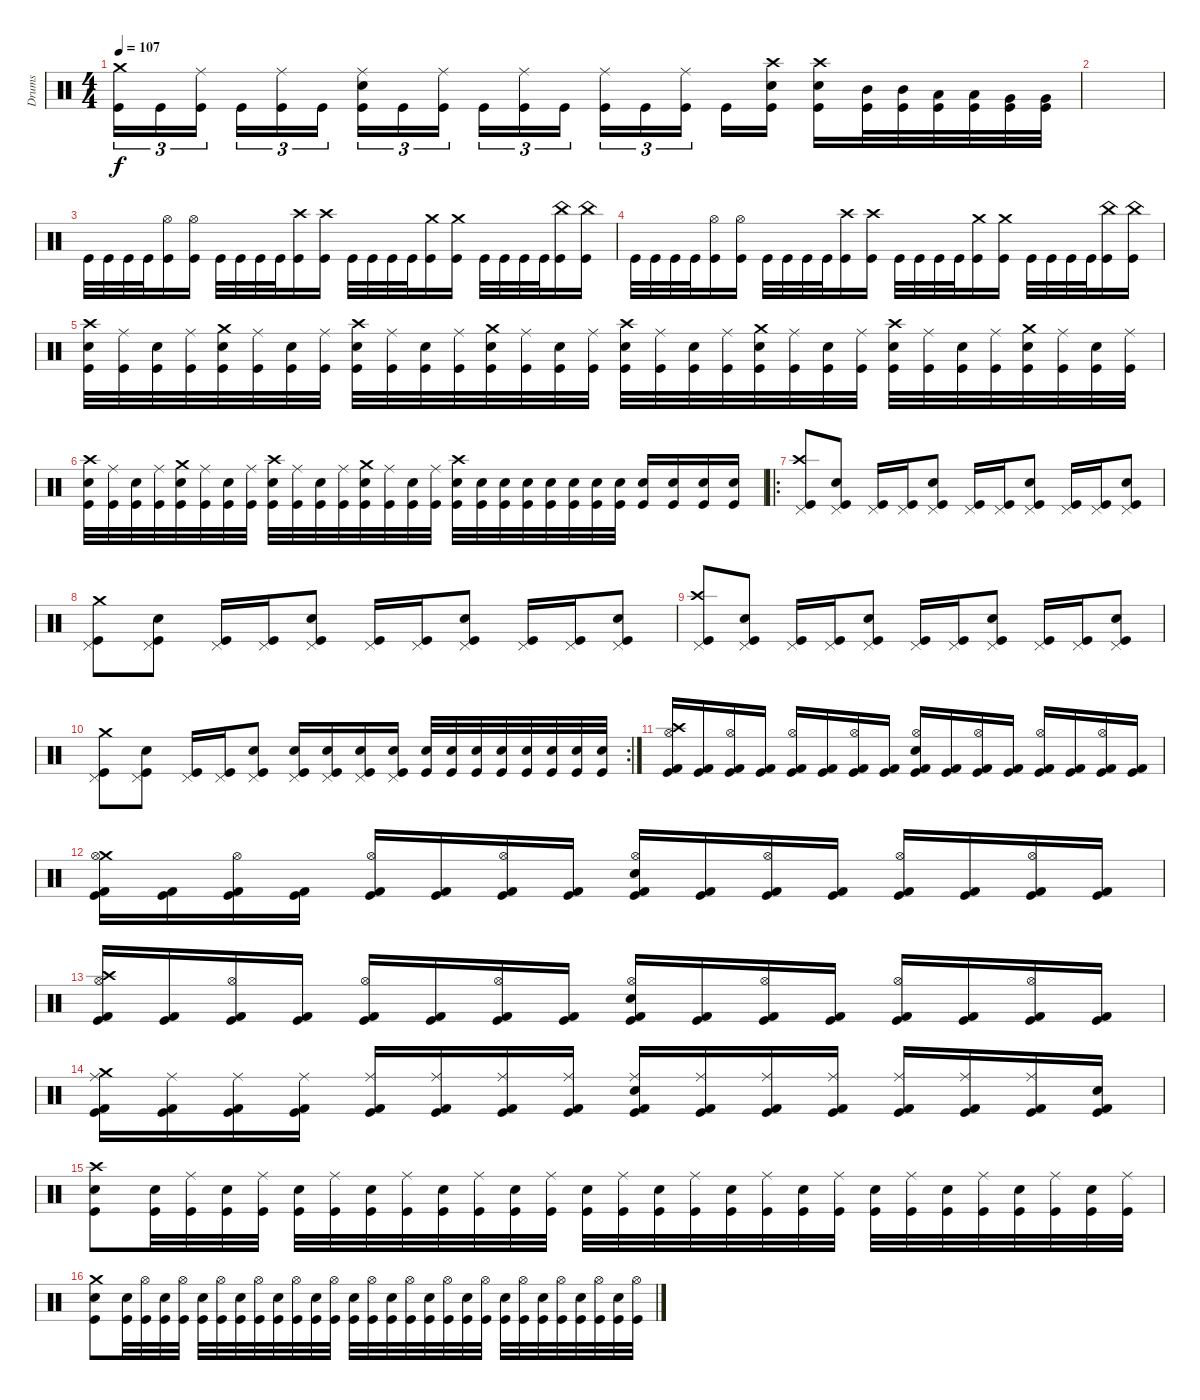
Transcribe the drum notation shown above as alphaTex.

\track ("Drums" "Drums") {instrument percussion}
\staff
\articulation defaults
\ts (4 4)
\tempo 107
\clef neutral
\ks c
("Crash medium (hit)" "Kick (hit)").16{tu (3 2) dy f} "Kick (hit)".16{tu (3 2)} ("Ride (middle)" "Kick (hit)").16{tu (3 2) beam splitsecondary} "Kick (hit)".16{tu (3 2)} ("Ride (middle)" "Kick (hit)").16{tu (3 2)} "Kick (hit)".16{tu (3 2)} ("Ride (middle)" "Electric Snare (hit)" "Kick (hit)").16{tu (3 2)} "Kick (hit)".16{tu (3 2)} ("Ride (middle)" "Kick (hit)").16{tu (3 2) beam splitsecondary} "Kick (hit)".16{tu (3 2)} ("Ride (middle)" "Kick (hit)").16{tu (3 2)} "Kick (hit)".16{tu (3 2)} ("Ride (middle)" "Kick (hit)").16{tu (3 2)} "Kick (hit)".16{tu (3 2)} ("Ride (middle)" "Kick (hit)").16{tu (3 2) beam splitsecondary} "Kick (hit)".16 ("Crash high (hit)" "Electric Snare (hit)" "Kick (hit)").16 ("Crash high (hit)" "Electric Snare (hit)" "Kick (hit)").16 ("Mid Tom (hit)" "Kick (hit)").32 ("Mid Tom (hit)" "Kick (hit)").32 ("Low Tom (hit)" "Kick (hit)").32 ("Low Tom (hit)" "Kick (hit)").32 ("Very Low Tom (hit)" "Kick (hit)").32 ("Very Low Tom (hit)" "Kick (hit)").32 |
|
"Kick (hit)".32 "Kick (hit)".32 "Kick (hit)".32 "Kick (hit)".32 ("Hi-Hat (open)" "Kick (hit)").16 ("Hi-Hat (open)" "Kick (hit)").16 "Kick (hit)".32 "Kick (hit)".32 "Kick (hit)".32 "Kick (hit)".32 ("Crash high (hit)" "Kick (hit)").16 ("Crash high (hit)" "Kick (hit)").16 "Kick (hit)".32 "Kick (hit)".32 "Kick (hit)".32 "Kick (hit)".32 ("Crash medium (hit)" "Kick (hit)").16 ("Crash medium (hit)" "Kick (hit)").16 "Kick (hit)".32 "Kick (hit)".32 "Kick (hit)".32 "Kick (hit)".32 ("China (hit)" "Kick (hit)").16 ("China (hit)" "Kick (hit)").16 |
"Kick (hit)".32 "Kick (hit)".32 "Kick (hit)".32 "Kick (hit)".32 ("Hi-Hat (open)" "Kick (hit)").16 ("Hi-Hat (open)" "Kick (hit)").16 "Kick (hit)".32 "Kick (hit)".32 "Kick (hit)".32 "Kick (hit)".32 ("Crash high (hit)" "Kick (hit)").16 ("Crash high (hit)" "Kick (hit)").16 "Kick (hit)".32 "Kick (hit)".32 "Kick (hit)".32 "Kick (hit)".32 ("Crash medium (hit)" "Kick (hit)").16 ("Crash medium (hit)" "Kick (hit)").16 "Kick (hit)".32 "Kick (hit)".32 "Kick (hit)".32 "Kick (hit)".32 ("China (hit)" "Kick (hit)").16 ("China (hit)" "Kick (hit)").16 |
("Crash high (hit)" "Electric Snare (hit)" "Kick (hit)").32 ("Ride (middle)" "Kick (hit)").32 ("Electric Snare (hit)" "Kick (hit)").32 ("Ride (middle)" "Kick (hit)").32 ("Crash medium (hit)" "Electric Snare (hit)" "Kick (hit)").32 ("Ride (middle)" "Kick (hit)").32 ("Electric Snare (hit)" "Kick (hit)").32 ("Ride (middle)" "Kick (hit)").32 ("Crash high (hit)" "Electric Snare (hit)" "Kick (hit)").32 ("Ride (middle)" "Kick (hit)").32 ("Electric Snare (hit)" "Kick (hit)").32 ("Ride (middle)" "Kick (hit)").32 ("Crash medium (hit)" "Electric Snare (hit)" "Kick (hit)").32 ("Ride (middle)" "Kick (hit)").32 ("Electric Snare (hit)" "Kick (hit)").32 ("Ride (middle)" "Kick (hit)").32 ("Crash high (hit)" "Electric Snare (hit)" "Kick (hit)").32 ("Ride (middle)" "Kick (hit)").32 ("Electric Snare (hit)" "Kick (hit)").32 ("Ride (middle)" "Kick (hit)").32 ("Crash medium (hit)" "Electric Snare (hit)" "Kick (hit)").32 ("Ride (middle)" "Kick (hit)").32 ("Electric Snare (hit)" "Kick (hit)").32 ("Ride (middle)" "Kick (hit)").32 ("Crash high (hit)" "Electric Snare (hit)" "Kick (hit)").32 ("Ride (middle)" "Kick (hit)").32 ("Electric Snare (hit)" "Kick (hit)").32 ("Ride (middle)" "Kick (hit)").32 ("Crash medium (hit)" "Electric Snare (hit)" "Kick (hit)").32 ("Ride (middle)" "Kick (hit)").32 ("Electric Snare (hit)" "Kick (hit)").32 ("Ride (middle)" "Kick (hit)").32 |
("Crash high (hit)" "Electric Snare (hit)" "Kick (hit)").32 ("Ride (middle)" "Kick (hit)").32 ("Electric Snare (hit)" "Kick (hit)").32 ("Ride (middle)" "Kick (hit)").32 ("Crash medium (hit)" "Electric Snare (hit)" "Kick (hit)").32 ("Ride (middle)" "Kick (hit)").32 ("Electric Snare (hit)" "Kick (hit)").32 ("Ride (middle)" "Kick (hit)").32 ("Crash high (hit)" "Electric Snare (hit)" "Kick (hit)").32 ("Ride (middle)" "Kick (hit)").32 ("Electric Snare (hit)" "Kick (hit)").32 ("Ride (middle)" "Kick (hit)").32 ("Crash medium (hit)" "Electric Snare (hit)" "Kick (hit)").32 ("Ride (middle)" "Kick (hit)").32 ("Electric Snare (hit)" "Kick (hit)").32 ("Ride (middle)" "Kick (hit)").32 ("Crash high (hit)" "Electric Snare (hit)" "Kick (hit)").32 ("Electric Snare (hit)" "Kick (hit)").32 ("Electric Snare (hit)" "Kick (hit)").32 ("Electric Snare (hit)" "Kick (hit)").32 ("Electric Snare (hit)" "Kick (hit)").32 ("Electric Snare (hit)" "Kick (hit)").32 ("Electric Snare (hit)" "Kick (hit)").32 ("Electric Snare (hit)" "Kick (hit)").32 ("Electric Snare (hit)" "Kick (hit)").16 ("Electric Snare (hit)" "Kick (hit)").16 ("Electric Snare (hit)" "Kick (hit)").16 ("Electric Snare (hit)" "Kick (hit)").16 |
\ro
("Crash high (hit)" "Pedal Hi-Hat (hit)" "Kick (hit)").8 ("Pedal Hi-Hat (hit)" "Electric Snare (hit)" "Kick (hit)").8 ("Pedal Hi-Hat (hit)" "Kick (hit)").16 ("Pedal Hi-Hat (hit)" "Kick (hit)").16 ("Pedal Hi-Hat (hit)" "Electric Snare (hit)" "Kick (hit)").8 ("Pedal Hi-Hat (hit)" "Kick (hit)").16 ("Pedal Hi-Hat (hit)" "Kick (hit)").16 ("Pedal Hi-Hat (hit)" "Electric Snare (hit)" "Kick (hit)").8 ("Pedal Hi-Hat (hit)" "Kick (hit)").16 ("Pedal Hi-Hat (hit)" "Kick (hit)").16 ("Pedal Hi-Hat (hit)" "Electric Snare (hit)" "Kick (hit)").8 |
("Crash medium (hit)" "Pedal Hi-Hat (hit)" "Kick (hit)").8 ("Pedal Hi-Hat (hit)" "Electric Snare (hit)" "Kick (hit)").8 ("Pedal Hi-Hat (hit)" "Kick (hit)").16 ("Pedal Hi-Hat (hit)" "Kick (hit)").16 ("Pedal Hi-Hat (hit)" "Electric Snare (hit)" "Kick (hit)").8 ("Pedal Hi-Hat (hit)" "Kick (hit)").16 ("Pedal Hi-Hat (hit)" "Kick (hit)").16 ("Pedal Hi-Hat (hit)" "Electric Snare (hit)" "Kick (hit)").8 ("Pedal Hi-Hat (hit)" "Kick (hit)").16 ("Pedal Hi-Hat (hit)" "Kick (hit)").16 ("Pedal Hi-Hat (hit)" "Electric Snare (hit)" "Kick (hit)").8 |
("Crash high (hit)" "Pedal Hi-Hat (hit)" "Kick (hit)").8 ("Pedal Hi-Hat (hit)" "Electric Snare (hit)" "Kick (hit)").8 ("Pedal Hi-Hat (hit)" "Kick (hit)").16 ("Pedal Hi-Hat (hit)" "Kick (hit)").16 ("Pedal Hi-Hat (hit)" "Electric Snare (hit)" "Kick (hit)").8 ("Pedal Hi-Hat (hit)" "Kick (hit)").16 ("Pedal Hi-Hat (hit)" "Kick (hit)").16 ("Pedal Hi-Hat (hit)" "Electric Snare (hit)" "Kick (hit)").8 ("Pedal Hi-Hat (hit)" "Kick (hit)").16 ("Pedal Hi-Hat (hit)" "Kick (hit)").16 ("Pedal Hi-Hat (hit)" "Electric Snare (hit)" "Kick (hit)").8 |
\rc 2
("Crash medium (hit)" "Pedal Hi-Hat (hit)" "Kick (hit)").8 ("Pedal Hi-Hat (hit)" "Electric Snare (hit)" "Kick (hit)").8 ("Pedal Hi-Hat (hit)" "Kick (hit)").16 ("Pedal Hi-Hat (hit)" "Kick (hit)").16 ("Pedal Hi-Hat (hit)" "Electric Snare (hit)" "Kick (hit)").8 ("Pedal Hi-Hat (hit)" "Electric Snare (hit)" "Kick (hit)").16 ("Pedal Hi-Hat (hit)" "Electric Snare (hit)" "Kick (hit)").16 ("Pedal Hi-Hat (hit)" "Electric Snare (hit)" "Kick (hit)").16 ("Pedal Hi-Hat (hit)" "Electric Snare (hit)" "Kick (hit)").16 ("Electric Snare (hit)" "Kick (hit)").32 ("Electric Snare (hit)" "Kick (hit)").32 ("Electric Snare (hit)" "Kick (hit)").32 ("Electric Snare (hit)" "Kick (hit)").32 ("Electric Snare (hit)" "Kick (hit)").32 ("Electric Snare (hit)" "Kick (hit)").32 ("Electric Snare (hit)" "Kick (hit)").32 ("Electric Snare (hit)" "Kick (hit)").32 |
("Crash high (hit)" "Hi-Hat (open)" "Kick (hit) 2" "Kick (hit)").16 ("Kick (hit) 2" "Kick (hit)").16 ("Hi-Hat (open)" "Kick (hit) 2" "Kick (hit)").16 ("Kick (hit) 2" "Kick (hit)").16 ("Hi-Hat (open)" "Kick (hit) 2" "Kick (hit)").16 ("Kick (hit) 2" "Kick (hit)").16 ("Hi-Hat (open)" "Kick (hit) 2" "Kick (hit)").16 ("Kick (hit) 2" "Kick (hit)").16 ("Hi-Hat (open)" "Electric Snare (hit)" "Kick (hit) 2" "Kick (hit)").16 ("Kick (hit) 2" "Kick (hit)").16 ("Hi-Hat (open)" "Kick (hit) 2" "Kick (hit)").16 ("Kick (hit) 2" "Kick (hit)").16 ("Hi-Hat (open)" "Kick (hit) 2" "Kick (hit)").16 ("Kick (hit) 2" "Kick (hit)").16 ("Hi-Hat (open)" "Kick (hit) 2" "Kick (hit)").16 ("Kick (hit) 2" "Kick (hit)").16 |
("Crash medium (hit)" "Hi-Hat (open)" "Kick (hit) 2" "Kick (hit)").16 ("Kick (hit) 2" "Kick (hit)").16 ("Hi-Hat (open)" "Kick (hit) 2" "Kick (hit)").16 ("Kick (hit) 2" "Kick (hit)").16 ("Hi-Hat (open)" "Kick (hit) 2" "Kick (hit)").16 ("Kick (hit) 2" "Kick (hit)").16 ("Hi-Hat (open)" "Kick (hit) 2" "Kick (hit)").16 ("Kick (hit) 2" "Kick (hit)").16 ("Hi-Hat (open)" "Electric Snare (hit)" "Kick (hit) 2" "Kick (hit)").16 ("Kick (hit) 2" "Kick (hit)").16 ("Hi-Hat (open)" "Kick (hit) 2" "Kick (hit)").16 ("Kick (hit) 2" "Kick (hit)").16 ("Hi-Hat (open)" "Kick (hit) 2" "Kick (hit)").16 ("Kick (hit) 2" "Kick (hit)").16 ("Hi-Hat (open)" "Kick (hit) 2" "Kick (hit)").16 ("Kick (hit) 2" "Kick (hit)").16 |
("Crash high (hit)" "Hi-Hat (open)" "Kick (hit) 2" "Kick (hit)").16 ("Kick (hit) 2" "Kick (hit)").16 ("Hi-Hat (open)" "Kick (hit) 2" "Kick (hit)").16 ("Kick (hit) 2" "Kick (hit)").16 ("Hi-Hat (open)" "Kick (hit) 2" "Kick (hit)").16 ("Kick (hit) 2" "Kick (hit)").16 ("Hi-Hat (open)" "Kick (hit) 2" "Kick (hit)").16 ("Kick (hit) 2" "Kick (hit)").16 ("Hi-Hat (open)" "Electric Snare (hit)" "Kick (hit) 2" "Kick (hit)").16 ("Kick (hit) 2" "Kick (hit)").16 ("Hi-Hat (open)" "Kick (hit) 2" "Kick (hit)").16 ("Kick (hit) 2" "Kick (hit)").16 ("Hi-Hat (open)" "Kick (hit) 2" "Kick (hit)").16 ("Kick (hit) 2" "Kick (hit)").16 ("Hi-Hat (open)" "Kick (hit) 2" "Kick (hit)").16 ("Kick (hit) 2" "Kick (hit)").16 |
("Crash medium (hit)" "Ride (middle)" "Kick (hit) 2" "Kick (hit)").16 ("Ride (middle)" "Kick (hit) 2" "Kick (hit)").16 ("Ride (middle)" "Kick (hit) 2" "Kick (hit)").16 ("Ride (middle)" "Kick (hit) 2" "Kick (hit)").16 ("Ride (middle)" "Kick (hit) 2" "Kick (hit)").16 ("Ride (middle)" "Kick (hit) 2" "Kick (hit)").16 ("Ride (middle)" "Kick (hit) 2" "Kick (hit)").16 ("Ride (middle)" "Kick (hit) 2" "Kick (hit)").16 ("Ride (middle)" "Electric Snare (hit)" "Kick (hit) 2" "Kick (hit)").16 ("Ride (middle)" "Kick (hit) 2" "Kick (hit)").16 ("Ride (middle)" "Kick (hit) 2" "Kick (hit)").16 ("Ride (middle)" "Kick (hit) 2" "Kick (hit)").16 ("Ride (middle)" "Kick (hit) 2" "Kick (hit)").16 ("Ride (middle)" "Kick (hit) 2" "Kick (hit)").16 ("Ride (middle)" "Kick (hit) 2" "Kick (hit)").16 ("Snare (hit)" "Kick (hit) 2" "Kick (hit)").16 |
("Crash high (hit)" "Electric Snare (hit)" "Kick (hit)").8 ("Electric Snare (hit)" "Kick (hit)").32 ("Ride (middle)" "Kick (hit)").32 ("Electric Snare (hit)" "Kick (hit)").32 ("Ride (middle)" "Kick (hit)").32 ("Electric Snare (hit)" "Kick (hit)").32 ("Ride (middle)" "Kick (hit)").32 ("Electric Snare (hit)" "Kick (hit)").32 ("Ride (middle)" "Kick (hit)").32 ("Electric Snare (hit)" "Kick (hit)").32 ("Ride (middle)" "Kick (hit)").32 ("Electric Snare (hit)" "Kick (hit)").32 ("Ride (middle)" "Kick (hit)").32 ("Electric Snare (hit)" "Kick (hit)").32 ("Ride (middle)" "Kick (hit)").32 ("Electric Snare (hit)" "Kick (hit)").32 ("Ride (middle)" "Kick (hit)").32 ("Electric Snare (hit)" "Kick (hit)").32 ("Ride (middle)" "Kick (hit)").32 ("Electric Snare (hit)" "Kick (hit)").32 ("Ride (middle)" "Kick (hit)").32 ("Electric Snare (hit)" "Kick (hit)").32 ("Ride (middle)" "Kick (hit)").32 ("Electric Snare (hit)" "Kick (hit)").32 ("Ride (middle)" "Kick (hit)").32 ("Electric Snare (hit)" "Kick (hit)").32 ("Ride (middle)" "Kick (hit)").32 ("Electric Snare (hit)" "Kick (hit)").32 ("Ride (middle)" "Kick (hit)").32 |
("Crash medium (hit)" "Electric Snare (hit)" "Kick (hit)").8 ("Electric Snare (hit)" "Kick (hit)").32 ("Hi-Hat (open)" "Kick (hit)").32 ("Electric Snare (hit)" "Kick (hit)").32 ("Hi-Hat (open)" "Kick (hit)").32 ("Electric Snare (hit)" "Kick (hit)").32 ("Hi-Hat (open)" "Kick (hit)").32 ("Electric Snare (hit)" "Kick (hit)").32 ("Hi-Hat (open)" "Kick (hit)").32 ("Electric Snare (hit)" "Kick (hit)").32 ("Hi-Hat (open)" "Kick (hit)").32 ("Electric Snare (hit)" "Kick (hit)").32 ("Hi-Hat (open)" "Kick (hit)").32 ("Electric Snare (hit)" "Kick (hit)").32 ("Hi-Hat (open)" "Kick (hit)").32 ("Electric Snare (hit)" "Kick (hit)").32 ("Hi-Hat (open)" "Kick (hit)").32 ("Electric Snare (hit)" "Kick (hit)").32 ("Hi-Hat (open)" "Kick (hit)").32 ("Electric Snare (hit)" "Kick (hit)").32 ("Hi-Hat (open)" "Kick (hit)").32 ("Electric Snare (hit)" "Kick (hit)").32 ("Hi-Hat (open)" "Kick (hit)").32 ("Electric Snare (hit)" "Kick (hit)").32 ("Hi-Hat (open)" "Kick (hit)").32 ("Electric Snare (hit)" "Kick (hit)").32 ("Hi-Hat (open)" "Kick (hit)").32 ("Electric Snare (hit)" "Kick (hit)").32 ("Hi-Hat (open)" "Kick (hit)").32
